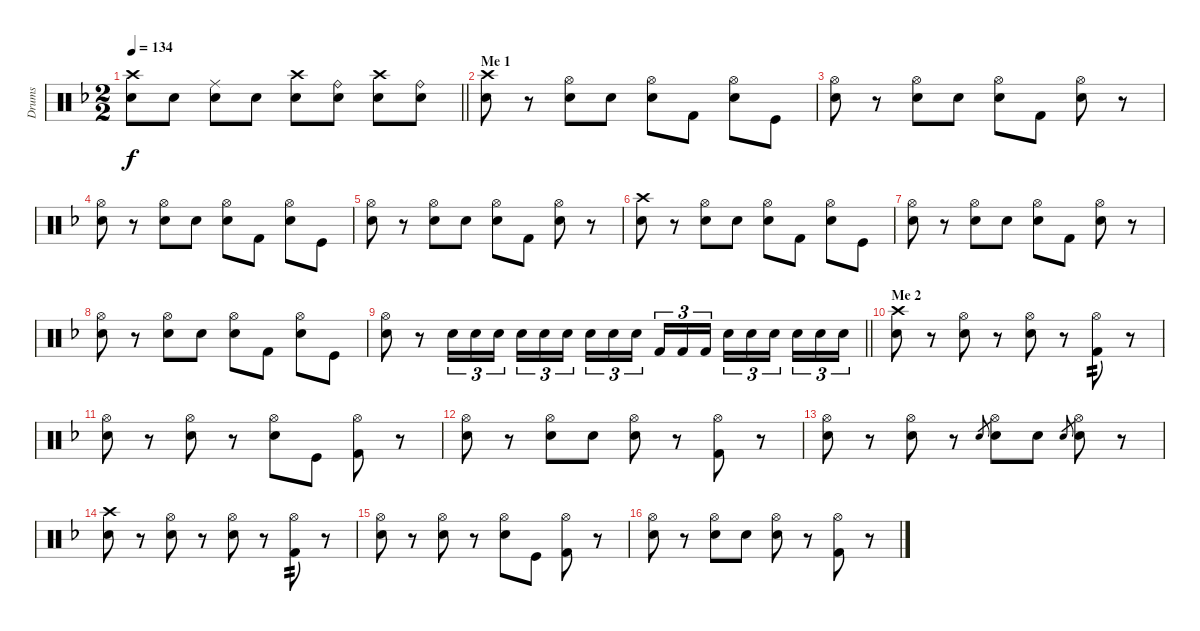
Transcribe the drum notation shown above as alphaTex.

\track ("Drums" "Drums") {instrument percussion}
\staff {score}
\articulation defaults
\ts (2 2)
\tempo 134
\clef neutral
\barLineRight lightlight
\ks f
("Electric Snare (hit)" "Crash high (hit)").8{dy f} "Electric Snare (hit)".8 ("Electric Snare (hit)" "Ride (middle)").8 "Electric Snare (hit)".8 ("Snare (hit) 2" "Crash high (hit)").8 ("Snare (hit) 2" "Ride (bell)").8 ("Snare (hit) 2" "Crash high (hit)").8 ("Snare (hit) 2" "Ride (bell)").8 |
\section ("" "Me 1")
("Snare (hit) 2" "Crash high (hit)").8 r.8 ("Snare (hit) 2" "Hi-Hat (open)").8 "Electric Snare (hit)".8 ("Snare (hit) 2" "Hi-Hat (open)").8 "Kick (hit) 2".8 ("Snare (hit) 2" "Hi-Hat (open)").8 "Kick (hit)".8 |
("Snare (hit) 2" "Hi-Hat (open)").8 r.8 ("Snare (hit) 2" "Hi-Hat (open)").8 "Electric Snare (hit)".8 ("Snare (hit) 2" "Hi-Hat (open)").8 "Kick (hit) 2".8 ("Snare (hit) 2" "Hi-Hat (open)").8 r.8 |
("Snare (hit) 2" "Hi-Hat (open)").8 r.8 ("Snare (hit) 2" "Hi-Hat (open)").8 "Electric Snare (hit)".8 ("Snare (hit) 2" "Hi-Hat (open)").8 "Kick (hit) 2".8 ("Snare (hit) 2" "Hi-Hat (open)").8 "Kick (hit)".8 |
("Snare (hit) 2" "Hi-Hat (open)").8 r.8 ("Snare (hit) 2" "Hi-Hat (open)").8 "Electric Snare (hit)".8 ("Snare (hit) 2" "Hi-Hat (open)").8 "Kick (hit) 2".8 ("Snare (hit) 2" "Hi-Hat (open)").8 r.8 |
("Snare (hit) 2" "Crash high (hit)").8 r.8 ("Snare (hit) 2" "Hi-Hat (open)").8 "Electric Snare (hit)".8 ("Snare (hit) 2" "Hi-Hat (open)").8 "Kick (hit) 2".8 ("Snare (hit) 2" "Hi-Hat (open)").8 "Kick (hit)".8 |
("Snare (hit) 2" "Hi-Hat (open)").8 r.8 ("Snare (hit) 2" "Hi-Hat (open)").8 "Electric Snare (hit)".8 ("Snare (hit) 2" "Hi-Hat (open)").8 "Kick (hit) 2".8 ("Snare (hit) 2" "Hi-Hat (open)").8 r.8 |
("Snare (hit) 2" "Hi-Hat (open)").8 r.8 ("Snare (hit) 2" "Hi-Hat (open)").8 "Electric Snare (hit)".8 ("Snare (hit) 2" "Hi-Hat (open)").8 "Kick (hit) 2".8 ("Snare (hit) 2" "Hi-Hat (open)").8 "Kick (hit)".8 |
\barLineRight lightlight
("Snare (hit) 2" "Hi-Hat (open)").8 r.8 "Snare (hit) 2".16{tu (3 2)} "Snare (hit) 2".16{tu (3 2)} "Snare (hit) 2".16{tu (3 2) beam splitsecondary} "Electric Snare (hit)".16{tu (3 2)} "Electric Snare (hit)".16{tu (3 2)} "Electric Snare (hit)".16{tu (3 2)} "Snare (hit) 2".16{tu (3 2)} "Snare (hit) 2".16{tu (3 2)} "Snare (hit) 2".16{tu (3 2) beam splitsecondary} "Kick (hit) 2".16{tu (3 2)} "Kick (hit) 2".16{tu (3 2)} "Kick (hit) 2".16{tu (3 2) beam splitsecondary} "Electric Snare (hit)".16{tu (3 2)} "Electric Snare (hit)".16{tu (3 2)} "Electric Snare (hit)".16{tu (3 2) beam splitsecondary} "Snare (hit) 2".16{tu (3 2)} "Snare (hit) 2".16{tu (3 2)} "Snare (hit) 2".16{tu (3 2)} |
\section ("" "Me 2")
("Snare (hit) 2" "Crash high (hit)").8 r.8 ("Snare (hit) 2" "Hi-Hat (open)").8 r.8 ("Electric Snare (hit)" "Hi-Hat (open)").8 r.8 ("Kick (hit) 2" "Hi-Hat (open)").8{tp 2} r.8 |
("Snare (hit) 2" "Hi-Hat (open)").8 r.8 ("Snare (hit) 2" "Hi-Hat (open)").8 r.8 ("Electric Snare (hit)" "Hi-Hat (open)").8 "Kick (hit)".8 ("Kick (hit) 2" "Hi-Hat (open)").8 r.8 |
("Snare (hit) 2" "Hi-Hat (open)").8 r.8 ("Snare (hit) 2" "Hi-Hat (open)").8 "Snare (hit) 2".8 ("Electric Snare (hit)" "Hi-Hat (open)").8 r.8 ("Kick (hit) 2" "Hi-Hat (open)").8 r.8 |
("Snare (hit) 2" "Hi-Hat (open)").8 r.8 ("Snare (hit) 2" "Hi-Hat (open)").8 r.8 "Electric Snare (hit)".8{gr} ("Electric Snare (hit)" "Hi-Hat (open)").8 "Snare (hit) 2".8 "Electric Snare (hit)".8{gr} ("Electric Snare (hit)" "Hi-Hat (open)").8 r.8 |
("Snare (hit) 2" "Crash high (hit)").8 r.8 ("Snare (hit) 2" "Hi-Hat (open)").8 r.8 ("Electric Snare (hit)" "Hi-Hat (open)").8 r.8 ("Kick (hit) 2" "Hi-Hat (open)").8{tp 2} r.8 |
("Snare (hit) 2" "Hi-Hat (open)").8 r.8 ("Snare (hit) 2" "Hi-Hat (open)").8 r.8 ("Electric Snare (hit)" "Hi-Hat (open)").8 "Kick (hit)".8 ("Kick (hit) 2" "Hi-Hat (open)").8 r.8 |
("Snare (hit) 2" "Hi-Hat (open)").8 r.8 ("Snare (hit) 2" "Hi-Hat (open)").8 "Snare (hit) 2".8 ("Electric Snare (hit)" "Hi-Hat (open)").8 r.8 ("Kick (hit) 2" "Hi-Hat (open)").8 r.8
